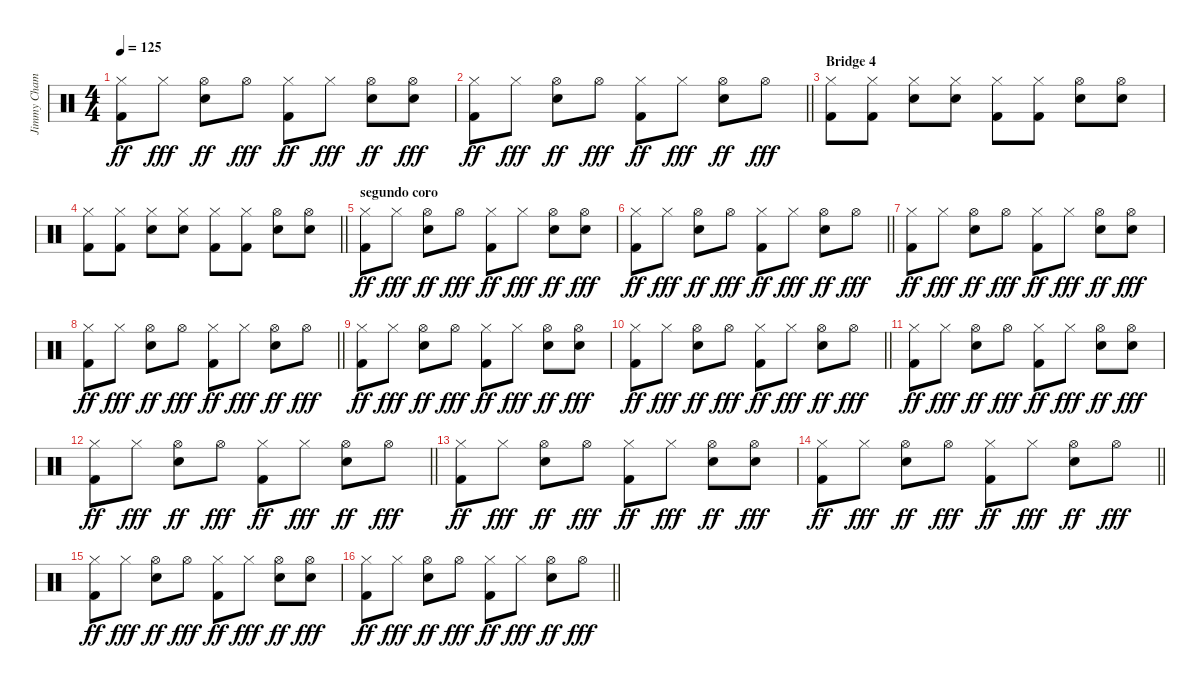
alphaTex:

\track ("Jimmy Chamberline" "Jimmy Cham") {instrument percussion}
\staff {score}
\articulation defaults
\ts (4 4)
\tempo 125
\clef neutral
\ks c
("Hi-Hat (closed)" "Kick (hit) 2").8{dy ff} "Hi-Hat (closed)".8{dy fff} ("Hi-Hat (open)" "Snare (hit) 2").8{dy ff} "Hi-Hat (open)".8{dy fff} ("Hi-Hat (closed)" "Kick (hit) 2").8{dy ff} "Hi-Hat (closed)".8{dy fff} ("Hi-Hat (open)" "Snare (hit) 2").8{dy ff} ("Hi-Hat (open)" "Snare (hit) 2").8{dy fff} |
\barLineRight lightlight
("Hi-Hat (closed)" "Kick (hit) 2").8{dy ff} "Hi-Hat (closed)".8{dy fff} ("Hi-Hat (open)" "Snare (hit) 2").8{dy ff} "Hi-Hat (open)".8{dy fff} ("Hi-Hat (closed)" "Kick (hit) 2").8{dy ff} "Hi-Hat (closed)".8{dy fff} ("Hi-Hat (open)" "Snare (hit) 2").8{dy ff} "Hi-Hat (open)".8{dy fff} |
\section ("" "Bridge 4")
("Hi-Hat (closed)" "Kick (hit) 2").8 ("Hi-Hat (closed)" "Kick (hit) 2").8 ("Hi-Hat (closed)" "Snare (hit) 2").8 ("Hi-Hat (closed)" "Snare (hit) 2").8 ("Hi-Hat (closed)" "Kick (hit) 2").8 ("Hi-Hat (closed)" "Kick (hit) 2").8 ("Hi-Hat (open)" "Snare (hit) 2").8 ("Hi-Hat (open)" "Snare (hit) 2").8 |
\barLineRight lightlight
("Hi-Hat (closed)" "Kick (hit) 2").8 ("Hi-Hat (closed)" "Kick (hit) 2").8 ("Hi-Hat (closed)" "Snare (hit) 2").8 ("Hi-Hat (closed)" "Snare (hit) 2").8 ("Hi-Hat (closed)" "Kick (hit) 2").8 ("Hi-Hat (closed)" "Kick (hit) 2").8 ("Hi-Hat (open)" "Snare (hit) 2").8 ("Hi-Hat (open)" "Snare (hit) 2").8 |
\section ("" "segundo coro")
("Hi-Hat (closed)" "Kick (hit) 2").8{dy ff} "Hi-Hat (closed)".8{dy fff} ("Hi-Hat (open)" "Snare (hit) 2").8{dy ff} "Hi-Hat (open)".8{dy fff} ("Hi-Hat (closed)" "Kick (hit) 2").8{dy ff} "Hi-Hat (closed)".8{dy fff} ("Hi-Hat (open)" "Snare (hit) 2").8{dy ff} ("Hi-Hat (open)" "Snare (hit) 2").8{dy fff} |
\barLineRight lightlight
("Hi-Hat (closed)" "Kick (hit) 2").8{dy ff} "Hi-Hat (closed)".8{dy fff} ("Hi-Hat (open)" "Snare (hit) 2").8{dy ff} "Hi-Hat (open)".8{dy fff} ("Hi-Hat (closed)" "Kick (hit) 2").8{dy ff} "Hi-Hat (closed)".8{dy fff} ("Hi-Hat (open)" "Snare (hit) 2").8{dy ff} "Hi-Hat (open)".8{dy fff} |
("Hi-Hat (closed)" "Kick (hit) 2").8{dy ff} "Hi-Hat (closed)".8{dy fff} ("Hi-Hat (open)" "Snare (hit) 2").8{dy ff} "Hi-Hat (open)".8{dy fff} ("Hi-Hat (closed)" "Kick (hit) 2").8{dy ff} "Hi-Hat (closed)".8{dy fff} ("Hi-Hat (open)" "Snare (hit) 2").8{dy ff} ("Hi-Hat (open)" "Snare (hit) 2").8{dy fff} |
\barLineRight lightlight
("Hi-Hat (closed)" "Kick (hit) 2").8{dy ff} "Hi-Hat (closed)".8{dy fff} ("Hi-Hat (open)" "Snare (hit) 2").8{dy ff} "Hi-Hat (open)".8{dy fff} ("Hi-Hat (closed)" "Kick (hit) 2").8{dy ff} "Hi-Hat (closed)".8{dy fff} ("Hi-Hat (open)" "Snare (hit) 2").8{dy ff} "Hi-Hat (open)".8{dy fff} |
("Hi-Hat (closed)" "Kick (hit) 2").8{dy ff} "Hi-Hat (closed)".8{dy fff} ("Hi-Hat (open)" "Snare (hit) 2").8{dy ff} "Hi-Hat (open)".8{dy fff} ("Hi-Hat (closed)" "Kick (hit) 2").8{dy ff} "Hi-Hat (closed)".8{dy fff} ("Hi-Hat (open)" "Snare (hit) 2").8{dy ff} ("Hi-Hat (open)" "Snare (hit) 2").8{dy fff} |
\barLineRight lightlight
("Hi-Hat (closed)" "Kick (hit) 2").8{dy ff} "Hi-Hat (closed)".8{dy fff} ("Hi-Hat (open)" "Snare (hit) 2").8{dy ff} "Hi-Hat (open)".8{dy fff} ("Hi-Hat (closed)" "Kick (hit) 2").8{dy ff} "Hi-Hat (closed)".8{dy fff} ("Hi-Hat (open)" "Snare (hit) 2").8{dy ff} "Hi-Hat (open)".8{dy fff} |
("Hi-Hat (closed)" "Kick (hit) 2").8{dy ff} "Hi-Hat (closed)".8{dy fff} ("Hi-Hat (open)" "Snare (hit) 2").8{dy ff} "Hi-Hat (open)".8{dy fff} ("Hi-Hat (closed)" "Kick (hit) 2").8{dy ff} "Hi-Hat (closed)".8{dy fff} ("Hi-Hat (open)" "Snare (hit) 2").8{dy ff} ("Hi-Hat (open)" "Snare (hit) 2").8{dy fff} |
\barLineRight lightlight
("Hi-Hat (closed)" "Kick (hit) 2").8{dy ff} "Hi-Hat (closed)".8{dy fff} ("Hi-Hat (open)" "Snare (hit) 2").8{dy ff} "Hi-Hat (open)".8{dy fff} ("Hi-Hat (closed)" "Kick (hit) 2").8{dy ff} "Hi-Hat (closed)".8{dy fff} ("Hi-Hat (open)" "Snare (hit) 2").8{dy ff} "Hi-Hat (open)".8{dy fff} |
("Hi-Hat (closed)" "Kick (hit) 2").8{dy ff} "Hi-Hat (closed)".8{dy fff} ("Hi-Hat (open)" "Snare (hit) 2").8{dy ff} "Hi-Hat (open)".8{dy fff} ("Hi-Hat (closed)" "Kick (hit) 2").8{dy ff} "Hi-Hat (closed)".8{dy fff} ("Hi-Hat (open)" "Snare (hit) 2").8{dy ff} ("Hi-Hat (open)" "Snare (hit) 2").8{dy fff} |
\barLineRight lightlight
("Hi-Hat (closed)" "Kick (hit) 2").8{dy ff} "Hi-Hat (closed)".8{dy fff} ("Hi-Hat (open)" "Snare (hit) 2").8{dy ff} "Hi-Hat (open)".8{dy fff} ("Hi-Hat (closed)" "Kick (hit) 2").8{dy ff} "Hi-Hat (closed)".8{dy fff} ("Hi-Hat (open)" "Snare (hit) 2").8{dy ff} "Hi-Hat (open)".8{dy fff} |
("Hi-Hat (closed)" "Kick (hit) 2").8{dy ff} "Hi-Hat (closed)".8{dy fff} ("Hi-Hat (open)" "Snare (hit) 2").8{dy ff} "Hi-Hat (open)".8{dy fff} ("Hi-Hat (closed)" "Kick (hit) 2").8{dy ff} "Hi-Hat (closed)".8{dy fff} ("Hi-Hat (open)" "Snare (hit) 2").8{dy ff} ("Hi-Hat (open)" "Snare (hit) 2").8{dy fff} |
\barLineRight lightlight
("Hi-Hat (closed)" "Kick (hit) 2").8{dy ff} "Hi-Hat (closed)".8{dy fff} ("Hi-Hat (open)" "Snare (hit) 2").8{dy ff} "Hi-Hat (open)".8{dy fff} ("Hi-Hat (closed)" "Kick (hit) 2").8{dy ff} "Hi-Hat (closed)".8{dy fff} ("Hi-Hat (open)" "Snare (hit) 2").8{dy ff} "Hi-Hat (open)".8{dy fff}
